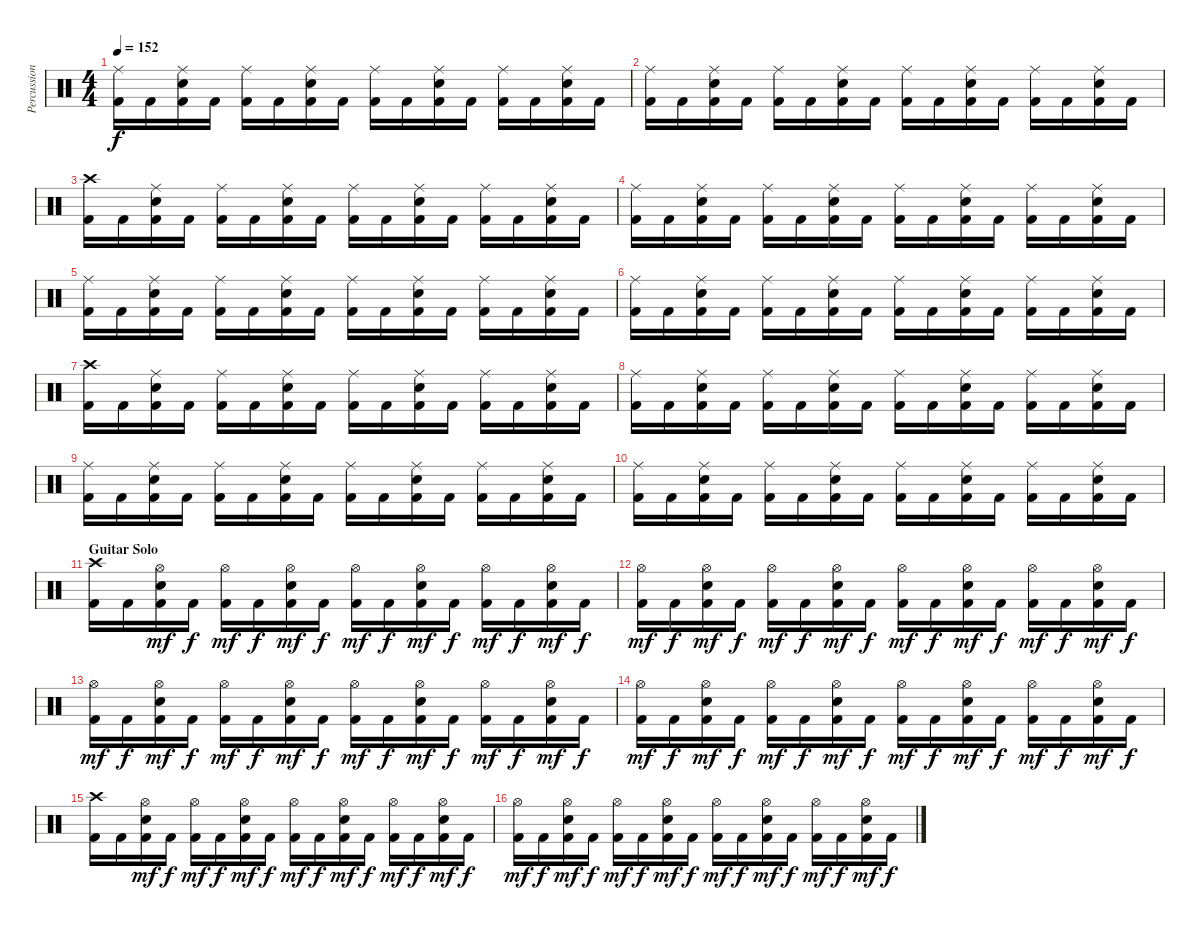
\track ("Percussion" "Percussion") {instrument percussion}
\staff {score}
\articulation defaults
\ts (4 4)
\tempo 152
\clef neutral
\ks c
("Ride (middle)" "Kick (hit) 2").16{dy f} "Kick (hit) 2".16 ("Ride (middle)" "Electric Snare (hit)" "Kick (hit) 2").16 "Kick (hit) 2".16 ("Ride (middle)" "Kick (hit) 2").16 "Kick (hit) 2".16 ("Ride (middle)" "Electric Snare (hit)" "Kick (hit) 2").16 "Kick (hit) 2".16 ("Ride (middle)" "Kick (hit) 2").16 "Kick (hit) 2".16 ("Ride (middle)" "Electric Snare (hit)" "Kick (hit) 2").16 "Kick (hit) 2".16 ("Ride (middle)" "Kick (hit) 2").16 "Kick (hit) 2".16 ("Ride (middle)" "Electric Snare (hit)" "Kick (hit) 2").16 "Kick (hit) 2".16 |
("Ride (middle)" "Kick (hit) 2").16 "Kick (hit) 2".16 ("Ride (middle)" "Electric Snare (hit)" "Kick (hit) 2").16 "Kick (hit) 2".16 ("Ride (middle)" "Kick (hit) 2").16 "Kick (hit) 2".16 ("Ride (middle)" "Electric Snare (hit)" "Kick (hit) 2").16 "Kick (hit) 2".16 ("Ride (middle)" "Kick (hit) 2").16 "Kick (hit) 2".16 ("Ride (middle)" "Electric Snare (hit)" "Kick (hit) 2").16 "Kick (hit) 2".16 ("Ride (middle)" "Kick (hit) 2").16 "Kick (hit) 2".16 ("Ride (middle)" "Electric Snare (hit)" "Kick (hit) 2").16 "Kick (hit) 2".16 |
("Crash high (hit)" "Kick (hit) 2").16 "Kick (hit) 2".16 ("Ride (middle)" "Electric Snare (hit)" "Kick (hit) 2").16 "Kick (hit) 2".16 ("Ride (middle)" "Kick (hit) 2").16 "Kick (hit) 2".16 ("Ride (middle)" "Electric Snare (hit)" "Kick (hit) 2").16 "Kick (hit) 2".16 ("Ride (middle)" "Kick (hit) 2").16 "Kick (hit) 2".16 ("Ride (middle)" "Electric Snare (hit)" "Kick (hit) 2").16 "Kick (hit) 2".16 ("Ride (middle)" "Kick (hit) 2").16 "Kick (hit) 2".16 ("Ride (middle)" "Electric Snare (hit)" "Kick (hit) 2").16 "Kick (hit) 2".16 |
("Ride (middle)" "Kick (hit) 2").16 "Kick (hit) 2".16 ("Ride (middle)" "Electric Snare (hit)" "Kick (hit) 2").16 "Kick (hit) 2".16 ("Ride (middle)" "Kick (hit) 2").16 "Kick (hit) 2".16 ("Ride (middle)" "Electric Snare (hit)" "Kick (hit) 2").16 "Kick (hit) 2".16 ("Ride (middle)" "Kick (hit) 2").16 "Kick (hit) 2".16 ("Ride (middle)" "Electric Snare (hit)" "Kick (hit) 2").16 "Kick (hit) 2".16 ("Ride (middle)" "Kick (hit) 2").16 "Kick (hit) 2".16 ("Ride (middle)" "Electric Snare (hit)" "Kick (hit) 2").16 "Kick (hit) 2".16 |
("Ride (middle)" "Kick (hit) 2").16 "Kick (hit) 2".16 ("Ride (middle)" "Electric Snare (hit)" "Kick (hit) 2").16 "Kick (hit) 2".16 ("Ride (middle)" "Kick (hit) 2").16 "Kick (hit) 2".16 ("Ride (middle)" "Electric Snare (hit)" "Kick (hit) 2").16 "Kick (hit) 2".16 ("Ride (middle)" "Kick (hit) 2").16 "Kick (hit) 2".16 ("Ride (middle)" "Electric Snare (hit)" "Kick (hit) 2").16 "Kick (hit) 2".16 ("Ride (middle)" "Kick (hit) 2").16 "Kick (hit) 2".16 ("Ride (middle)" "Electric Snare (hit)" "Kick (hit) 2").16 "Kick (hit) 2".16 |
("Ride (middle)" "Kick (hit) 2").16 "Kick (hit) 2".16 ("Ride (middle)" "Electric Snare (hit)" "Kick (hit) 2").16 "Kick (hit) 2".16 ("Ride (middle)" "Kick (hit) 2").16 "Kick (hit) 2".16 ("Ride (middle)" "Electric Snare (hit)" "Kick (hit) 2").16 "Kick (hit) 2".16 ("Ride (middle)" "Kick (hit) 2").16 "Kick (hit) 2".16 ("Ride (middle)" "Electric Snare (hit)" "Kick (hit) 2").16 "Kick (hit) 2".16 ("Ride (middle)" "Kick (hit) 2").16 "Kick (hit) 2".16 ("Ride (middle)" "Electric Snare (hit)" "Kick (hit) 2").16 "Kick (hit) 2".16 |
("Crash high (hit)" "Kick (hit) 2").16 "Kick (hit) 2".16 ("Ride (middle)" "Electric Snare (hit)" "Kick (hit) 2").16 "Kick (hit) 2".16 ("Ride (middle)" "Kick (hit) 2").16 "Kick (hit) 2".16 ("Ride (middle)" "Electric Snare (hit)" "Kick (hit) 2").16 "Kick (hit) 2".16 ("Ride (middle)" "Kick (hit) 2").16 "Kick (hit) 2".16 ("Ride (middle)" "Electric Snare (hit)" "Kick (hit) 2").16 "Kick (hit) 2".16 ("Ride (middle)" "Kick (hit) 2").16 "Kick (hit) 2".16 ("Ride (middle)" "Electric Snare (hit)" "Kick (hit) 2").16 "Kick (hit) 2".16 |
("Ride (middle)" "Kick (hit) 2").16 "Kick (hit) 2".16 ("Ride (middle)" "Electric Snare (hit)" "Kick (hit) 2").16 "Kick (hit) 2".16 ("Ride (middle)" "Kick (hit) 2").16 "Kick (hit) 2".16 ("Ride (middle)" "Electric Snare (hit)" "Kick (hit) 2").16 "Kick (hit) 2".16 ("Ride (middle)" "Kick (hit) 2").16 "Kick (hit) 2".16 ("Ride (middle)" "Electric Snare (hit)" "Kick (hit) 2").16 "Kick (hit) 2".16 ("Ride (middle)" "Kick (hit) 2").16 "Kick (hit) 2".16 ("Ride (middle)" "Electric Snare (hit)" "Kick (hit) 2").16 "Kick (hit) 2".16 |
("Ride (middle)" "Kick (hit) 2").16 "Kick (hit) 2".16 ("Ride (middle)" "Electric Snare (hit)" "Kick (hit) 2").16 "Kick (hit) 2".16 ("Ride (middle)" "Kick (hit) 2").16 "Kick (hit) 2".16 ("Ride (middle)" "Electric Snare (hit)" "Kick (hit) 2").16 "Kick (hit) 2".16 ("Ride (middle)" "Kick (hit) 2").16 "Kick (hit) 2".16 ("Ride (middle)" "Electric Snare (hit)" "Kick (hit) 2").16 "Kick (hit) 2".16 ("Ride (middle)" "Kick (hit) 2").16 "Kick (hit) 2".16 ("Ride (middle)" "Electric Snare (hit)" "Kick (hit) 2").16 "Kick (hit) 2".16 |
("Ride (middle)" "Kick (hit) 2").16 "Kick (hit) 2".16 ("Ride (middle)" "Electric Snare (hit)" "Kick (hit) 2").16 "Kick (hit) 2".16 ("Ride (middle)" "Kick (hit) 2").16 "Kick (hit) 2".16 ("Ride (middle)" "Electric Snare (hit)" "Kick (hit) 2").16 "Kick (hit) 2".16 ("Ride (middle)" "Kick (hit) 2").16 "Kick (hit) 2".16 ("Ride (middle)" "Electric Snare (hit)" "Kick (hit) 2").16 "Kick (hit) 2".16 ("Ride (middle)" "Kick (hit) 2").16 "Kick (hit) 2".16 ("Ride (middle)" "Electric Snare (hit)" "Kick (hit) 2").16 "Kick (hit) 2".16 |
\section ("" "Guitar Solo")
("Crash high (hit)" "Kick (hit) 2").16 "Kick (hit) 2".16 ("Hi-Hat (open)" "Electric Snare (hit)" "Kick (hit) 2").16{dy mf} "Kick (hit) 2".16{dy f} ("Hi-Hat (open)" "Kick (hit) 2").16{dy mf} "Kick (hit) 2".16{dy f} ("Hi-Hat (open)" "Electric Snare (hit)" "Kick (hit) 2").16{dy mf} "Kick (hit) 2".16{dy f} ("Hi-Hat (open)" "Kick (hit) 2").16{dy mf} "Kick (hit) 2".16{dy f} ("Hi-Hat (open)" "Electric Snare (hit)" "Kick (hit) 2").16{dy mf} "Kick (hit) 2".16{dy f} ("Hi-Hat (open)" "Kick (hit) 2").16{dy mf} "Kick (hit) 2".16{dy f} ("Hi-Hat (open)" "Electric Snare (hit)" "Kick (hit) 2").16{dy mf} "Kick (hit) 2".16{dy f} |
("Hi-Hat (open)" "Kick (hit) 2").16{dy mf} "Kick (hit) 2".16{dy f} ("Hi-Hat (open)" "Electric Snare (hit)" "Kick (hit) 2").16{dy mf} "Kick (hit) 2".16{dy f} ("Hi-Hat (open)" "Kick (hit) 2").16{dy mf} "Kick (hit) 2".16{dy f} ("Hi-Hat (open)" "Electric Snare (hit)" "Kick (hit) 2").16{dy mf} "Kick (hit) 2".16{dy f} ("Hi-Hat (open)" "Kick (hit) 2").16{dy mf} "Kick (hit) 2".16{dy f} ("Hi-Hat (open)" "Electric Snare (hit)" "Kick (hit) 2").16{dy mf} "Kick (hit) 2".16{dy f} ("Hi-Hat (open)" "Kick (hit) 2").16{dy mf} "Kick (hit) 2".16{dy f} ("Hi-Hat (open)" "Electric Snare (hit)" "Kick (hit) 2").16{dy mf} "Kick (hit) 2".16{dy f} |
("Hi-Hat (open)" "Kick (hit) 2").16{dy mf} "Kick (hit) 2".16{dy f} ("Hi-Hat (open)" "Electric Snare (hit)" "Kick (hit) 2").16{dy mf} "Kick (hit) 2".16{dy f} ("Hi-Hat (open)" "Kick (hit) 2").16{dy mf} "Kick (hit) 2".16{dy f} ("Hi-Hat (open)" "Electric Snare (hit)" "Kick (hit) 2").16{dy mf} "Kick (hit) 2".16{dy f} ("Hi-Hat (open)" "Kick (hit) 2").16{dy mf} "Kick (hit) 2".16{dy f} ("Hi-Hat (open)" "Electric Snare (hit)" "Kick (hit) 2").16{dy mf} "Kick (hit) 2".16{dy f} ("Hi-Hat (open)" "Kick (hit) 2").16{dy mf} "Kick (hit) 2".16{dy f} ("Hi-Hat (open)" "Electric Snare (hit)" "Kick (hit) 2").16{dy mf} "Kick (hit) 2".16{dy f} |
("Hi-Hat (open)" "Kick (hit) 2").16{dy mf} "Kick (hit) 2".16{dy f} ("Hi-Hat (open)" "Electric Snare (hit)" "Kick (hit) 2").16{dy mf} "Kick (hit) 2".16{dy f} ("Hi-Hat (open)" "Kick (hit) 2").16{dy mf} "Kick (hit) 2".16{dy f} ("Hi-Hat (open)" "Electric Snare (hit)" "Kick (hit) 2").16{dy mf} "Kick (hit) 2".16{dy f} ("Hi-Hat (open)" "Kick (hit) 2").16{dy mf} "Kick (hit) 2".16{dy f} ("Hi-Hat (open)" "Electric Snare (hit)" "Kick (hit) 2").16{dy mf} "Kick (hit) 2".16{dy f} ("Hi-Hat (open)" "Kick (hit) 2").16{dy mf} "Kick (hit) 2".16{dy f} ("Hi-Hat (open)" "Electric Snare (hit)" "Kick (hit) 2").16{dy mf} "Kick (hit) 2".16{dy f} |
("Crash high (hit)" "Kick (hit) 2").16 "Kick (hit) 2".16 ("Hi-Hat (open)" "Electric Snare (hit)" "Kick (hit) 2").16{dy mf} "Kick (hit) 2".16{dy f} ("Hi-Hat (open)" "Kick (hit) 2").16{dy mf} "Kick (hit) 2".16{dy f} ("Hi-Hat (open)" "Electric Snare (hit)" "Kick (hit) 2").16{dy mf} "Kick (hit) 2".16{dy f} ("Hi-Hat (open)" "Kick (hit) 2").16{dy mf} "Kick (hit) 2".16{dy f} ("Hi-Hat (open)" "Electric Snare (hit)" "Kick (hit) 2").16{dy mf} "Kick (hit) 2".16{dy f} ("Hi-Hat (open)" "Kick (hit) 2").16{dy mf} "Kick (hit) 2".16{dy f} ("Hi-Hat (open)" "Electric Snare (hit)" "Kick (hit) 2").16{dy mf} "Kick (hit) 2".16{dy f} |
("Hi-Hat (open)" "Kick (hit) 2").16{dy mf} "Kick (hit) 2".16{dy f} ("Hi-Hat (open)" "Electric Snare (hit)" "Kick (hit) 2").16{dy mf} "Kick (hit) 2".16{dy f} ("Hi-Hat (open)" "Kick (hit) 2").16{dy mf} "Kick (hit) 2".16{dy f} ("Hi-Hat (open)" "Electric Snare (hit)" "Kick (hit) 2").16{dy mf} "Kick (hit) 2".16{dy f} ("Hi-Hat (open)" "Kick (hit) 2").16{dy mf} "Kick (hit) 2".16{dy f} ("Hi-Hat (open)" "Electric Snare (hit)" "Kick (hit) 2").16{dy mf} "Kick (hit) 2".16{dy f} ("Hi-Hat (open)" "Kick (hit) 2").16{dy mf} "Kick (hit) 2".16{dy f} ("Hi-Hat (open)" "Electric Snare (hit)" "Kick (hit) 2").16{dy mf} "Kick (hit) 2".16{dy f}
